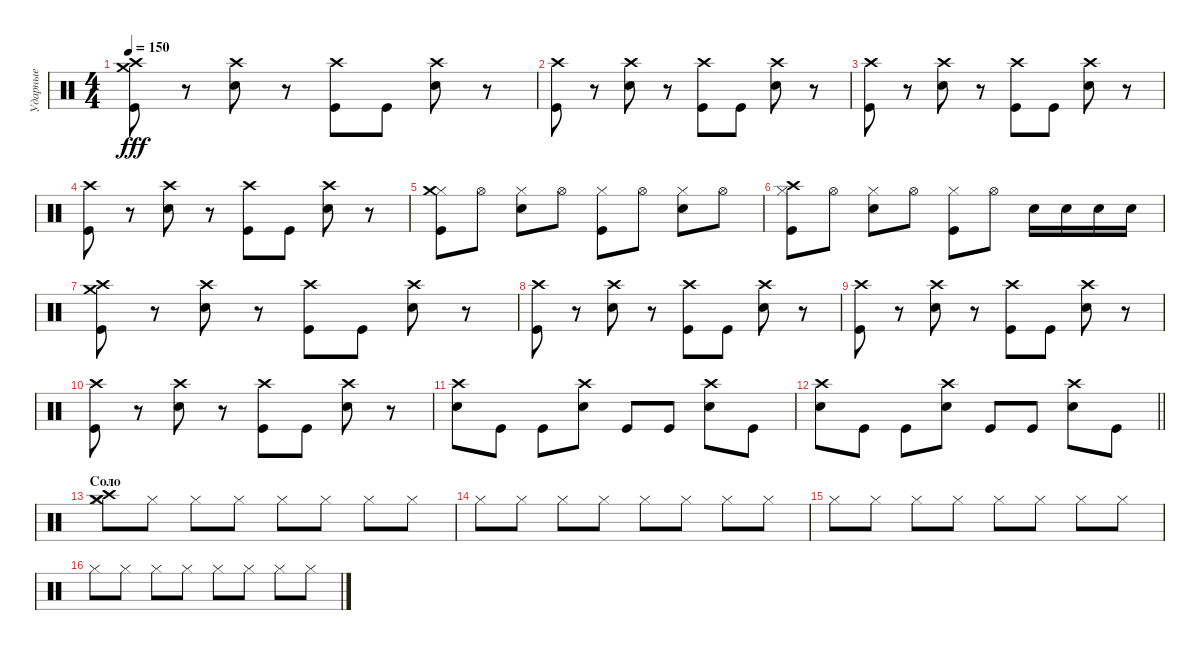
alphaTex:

\track ("Ударные" "Ударные") {instrument percussion}
\staff {score}
\articulation defaults
\ts (4 4)
\tempo 150
\clef neutral
\ks c
("Crash high (hit)" "Kick (hit)" "Crash medium (hit)").8{dy fff} r.8 ("Crash high (hit)" "Electric Snare (hit)").8 r.8 ("Crash high (hit)" "Kick (hit)").8 "Kick (hit)".8 ("Crash high (hit)" "Electric Snare (hit)").8 r.8 |
("Crash high (hit)" "Kick (hit)").8 r.8 ("Crash high (hit)" "Electric Snare (hit)").8 r.8 ("Crash high (hit)" "Kick (hit)").8 "Kick (hit)".8 ("Crash high (hit)" "Electric Snare (hit)").8 r.8 |
("Crash high (hit)" "Kick (hit)").8 r.8 ("Crash high (hit)" "Electric Snare (hit)").8 r.8 ("Crash high (hit)" "Kick (hit)").8 "Kick (hit)".8 ("Crash high (hit)" "Electric Snare (hit)").8 r.8 |
("Crash high (hit)" "Kick (hit)").8 r.8 ("Crash high (hit)" "Electric Snare (hit)").8 r.8 ("Crash high (hit)" "Kick (hit)").8 "Kick (hit)".8 ("Crash high (hit)" "Electric Snare (hit)").8 r.8 |
("Hi-Hat (closed)" "Kick (hit)" "Crash medium (hit)").8 "Hi-Hat (open)".8 ("Hi-Hat (closed)" "Electric Snare (hit)").8 "Hi-Hat (open)".8 ("Hi-Hat (closed)" "Kick (hit)").8 "Hi-Hat (open)".8 ("Hi-Hat (closed)" "Electric Snare (hit)").8 "Hi-Hat (open)".8 |
("Hi-Hat (closed)" "Kick (hit)" "Crash high (hit)").8 "Hi-Hat (open)".8 ("Hi-Hat (closed)" "Electric Snare (hit)").8 "Hi-Hat (open)".8 ("Hi-Hat (closed)" "Kick (hit)").8 "Hi-Hat (open)".8 "Electric Snare (hit)".16 "Electric Snare (hit)".16 "Electric Snare (hit)".16 "Electric Snare (hit)".16 |
("Crash high (hit)" "Kick (hit)" "Crash medium (hit)").8 r.8 ("Crash high (hit)" "Electric Snare (hit)").8 r.8 ("Crash high (hit)" "Kick (hit)").8 "Kick (hit)".8 ("Crash high (hit)" "Electric Snare (hit)").8 r.8 |
("Crash high (hit)" "Kick (hit)").8 r.8 ("Crash high (hit)" "Electric Snare (hit)").8 r.8 ("Crash high (hit)" "Kick (hit)").8 "Kick (hit)".8 ("Crash high (hit)" "Electric Snare (hit)").8 r.8 |
("Crash high (hit)" "Kick (hit)").8 r.8 ("Crash high (hit)" "Electric Snare (hit)").8 r.8 ("Crash high (hit)" "Kick (hit)").8 "Kick (hit)".8 ("Crash high (hit)" "Electric Snare (hit)").8 r.8 |
("Crash high (hit)" "Kick (hit)").8 r.8 ("Crash high (hit)" "Electric Snare (hit)").8 r.8 ("Crash high (hit)" "Kick (hit)").8 "Kick (hit)".8 ("Crash high (hit)" "Electric Snare (hit)").8 r.8 |
("Electric Snare (hit)" "Crash high (hit)").8 "Kick (hit)".8 "Kick (hit)".8 ("Electric Snare (hit)" "Crash high (hit)").8 "Kick (hit)".8 "Kick (hit)".8 ("Electric Snare (hit)" "Crash high (hit)").8 "Kick (hit)".8 |
\barLineRight lightlight
("Electric Snare (hit)" "Crash high (hit)").8 "Kick (hit)".8 "Kick (hit)".8 ("Electric Snare (hit)" "Crash high (hit)").8 "Kick (hit)".8 "Kick (hit)".8 ("Electric Snare (hit)" "Crash high (hit)").8 "Kick (hit)".8 |
\section ("" "Соло")
("Hi-Hat (closed)" "Crash medium (hit)" "Crash high (hit)").8 "Hi-Hat (closed)".8 "Hi-Hat (closed)".8 "Hi-Hat (closed)".8 "Hi-Hat (closed)".8 "Hi-Hat (closed)".8 "Hi-Hat (closed)".8 "Hi-Hat (closed)".8 |
"Hi-Hat (closed)".8 "Hi-Hat (closed)".8 "Hi-Hat (closed)".8 "Hi-Hat (closed)".8 "Hi-Hat (closed)".8 "Hi-Hat (closed)".8 "Hi-Hat (closed)".8 "Hi-Hat (closed)".8 |
"Hi-Hat (closed)".8 "Hi-Hat (closed)".8 "Hi-Hat (closed)".8 "Hi-Hat (closed)".8 "Hi-Hat (closed)".8 "Hi-Hat (closed)".8 "Hi-Hat (closed)".8 "Hi-Hat (closed)".8 |
"Hi-Hat (closed)".8 "Hi-Hat (closed)".8 "Hi-Hat (closed)".8 "Hi-Hat (closed)".8 "Hi-Hat (closed)".8 "Hi-Hat (closed)".8 "Hi-Hat (closed)".8 "Hi-Hat (closed)".8
